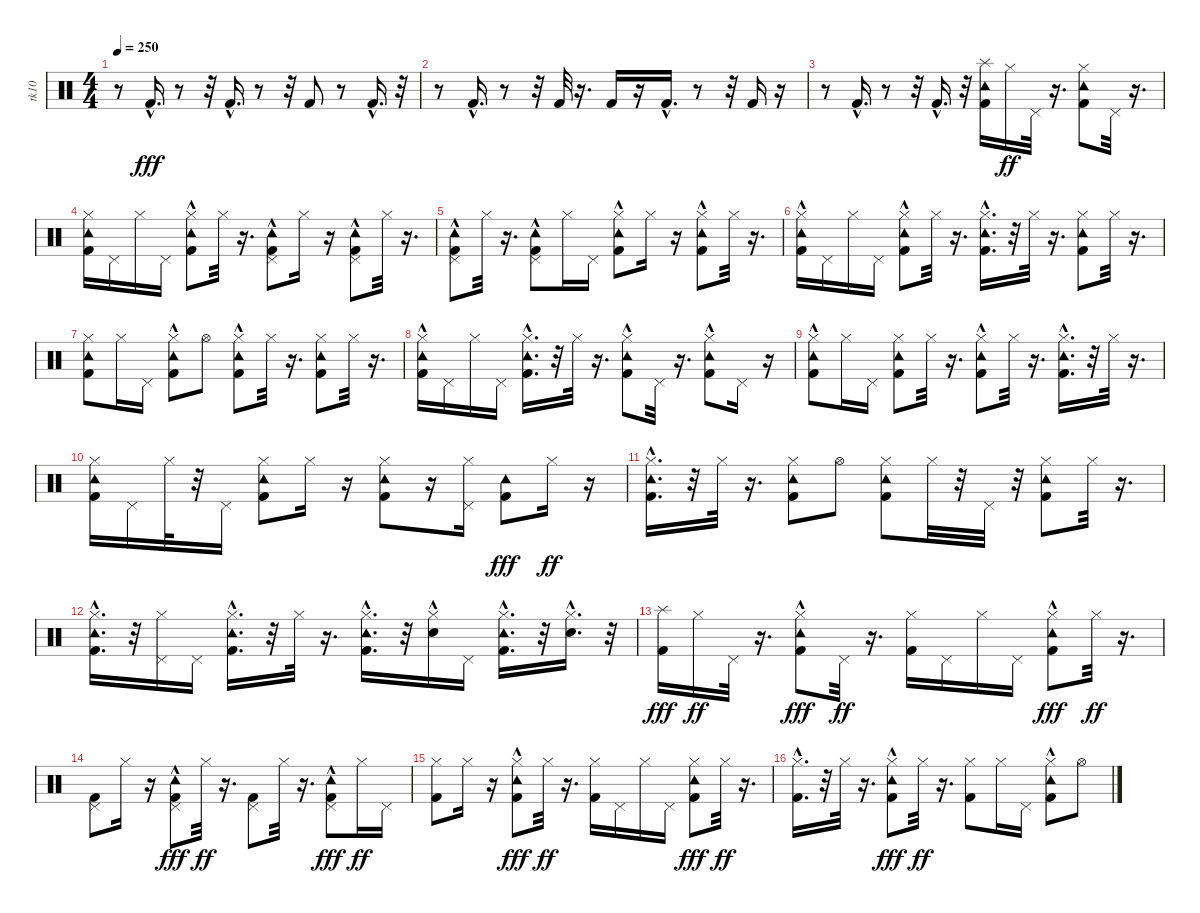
\track ("tk10" "tk10") {instrument percussion}
\staff {score}
\articulation defaults
\ts (4 4)
\tempo 250
\clef neutral
\ks c
r.8{dy fff} "Kick (hit) 2"{hac}.16{d} r.8 r.32 "Kick (hit) 2"{hac}.16{d} r.8 r.32 "Kick (hit) 2".8 r.8 "Kick (hit) 2"{hac}.16{d} r.32 |
r.8 "Kick (hit) 2"{hac}.16{d} r.8 r.32 "Kick (hit) 2".32 r.16{d} "Kick (hit) 2".16 r.16 "Kick (hit) 2"{hac}.16{d} r.8 r.32 "Kick (hit) 2".16 r.16 |
r.8 "Kick (hit) 2"{hac}.16{d} r.8 r.32 "Kick (hit) 2"{hac}.16{d} r.32 ("Kick (hit) 2" "Tambourine (hit)" "Splash (hit)").16 "Hi-Hat (closed)".16{dy ff} "Pedal Hi-Hat (hit)".32 r.16{d} ("Kick (hit) 2" "Tambourine (hit)" "Hi-Hat (closed)").8 "Pedal Hi-Hat (hit)".32 r.16{d} |
("Kick (hit) 2" "Tambourine (hit)" "Hi-Hat (closed)").16 "Pedal Hi-Hat (hit)".16 "Hi-Hat (closed)".16 "Pedal Hi-Hat (hit)".16 ("Kick (hit) 2" "Tambourine (hit)"{hac} "Hi-Hat (closed)").8 "Hi-Hat (closed)".32 r.16{d} ("Kick (hit) 2" "Tambourine (hit)"{hac} "Pedal Hi-Hat (hit)").8 "Hi-Hat (closed)".16 r.16 ("Kick (hit) 2" "Tambourine (hit)"{hac} "Pedal Hi-Hat (hit)").8 "Hi-Hat (closed)".32 r.16{d} |
("Kick (hit) 2" "Tambourine (hit)"{hac} "Pedal Hi-Hat (hit)").8 "Hi-Hat (closed)".32 r.16{d} ("Kick (hit) 2" "Tambourine (hit)"{hac} "Pedal Hi-Hat (hit)").8 "Hi-Hat (closed)".16 "Pedal Hi-Hat (hit)".16 ("Kick (hit) 2" "Tambourine (hit)"{hac} "Hi-Hat (closed)").8 "Hi-Hat (closed)".16 r.16 ("Kick (hit) 2" "Tambourine (hit)"{hac} "Hi-Hat (closed)").8 "Hi-Hat (closed)".32 r.16{d} |
("Kick (hit) 2" "Tambourine (hit)"{hac} "Hi-Hat (closed)").16 "Pedal Hi-Hat (hit)".16 "Hi-Hat (closed)".16 "Pedal Hi-Hat (hit)".16 ("Kick (hit) 2" "Tambourine (hit)"{hac} "Hi-Hat (closed)").8 "Hi-Hat (closed)".32 r.16{d} ("Kick (hit) 2"{hac} "Tambourine (hit)"{hac} "Hi-Hat (closed)").16{d} r.32 "Hi-Hat (closed)".32 r.16{d} ("Kick (hit) 2" "Tambourine (hit)" "Hi-Hat (closed)").8 "Hi-Hat (closed)".32 r.16{d} |
("Kick (hit) 2" "Tambourine (hit)" "Hi-Hat (closed)").8 "Hi-Hat (closed)".16 "Pedal Hi-Hat (hit)".16 ("Kick (hit) 2" "Tambourine (hit)"{hac} "Hi-Hat (closed)").8 "Hi-Hat (open)".8 ("Kick (hit) 2" "Tambourine (hit)"{hac} "Hi-Hat (closed)").8 "Hi-Hat (closed)".32 r.16{d} ("Kick (hit) 2" "Tambourine (hit)" "Hi-Hat (closed)").8 "Hi-Hat (closed)".32 r.16{d} |
("Kick (hit) 2" "Tambourine (hit)"{hac} "Hi-Hat (closed)").16 "Pedal Hi-Hat (hit)".16 "Hi-Hat (closed)".16 "Pedal Hi-Hat (hit)".16 ("Kick (hit) 2"{hac} "Tambourine (hit)"{hac} "Hi-Hat (closed)").16{d} r.32 "Hi-Hat (closed)".32 r.16{d} ("Kick (hit) 2" "Tambourine (hit)"{hac} "Hi-Hat (closed)").8 "Pedal Hi-Hat (hit)".32 r.16{d} ("Kick (hit) 2" "Tambourine (hit)"{hac} "Hi-Hat (closed)").8 "Pedal Hi-Hat (hit)".16 r.16 |
("Kick (hit) 2" "Tambourine (hit)"{hac} "Hi-Hat (closed)").8 "Hi-Hat (closed)".16 "Pedal Hi-Hat (hit)".16 ("Kick (hit) 2" "Tambourine (hit)" "Hi-Hat (closed)").8 "Hi-Hat (closed)".32 r.16{d} ("Kick (hit) 2" "Tambourine (hit)"{hac} "Hi-Hat (closed)").8 "Hi-Hat (closed)".32 r.16{d} ("Kick (hit) 2"{hac} "Tambourine (hit)" "Hi-Hat (closed)").16{d} r.32 "Hi-Hat (closed)".32 r.16{d} |
("Kick (hit) 2" "Tambourine (hit)" "Hi-Hat (closed)").16 "Pedal Hi-Hat (hit)".16 "Hi-Hat (closed)".32 r.32 "Pedal Hi-Hat (hit)".16 ("Kick (hit) 2" "Tambourine (hit)" "Hi-Hat (closed)").8 "Hi-Hat (closed)".16 r.16 ("Kick (hit) 2" "Tambourine (hit)" "Hi-Hat (closed)").8 r.16 ("Hi-Hat (closed)" "Pedal Hi-Hat (hit)").16 ("Kick (hit) 2" "Tambourine (hit)").8{dy fff} "Hi-Hat (closed)".16{dy ff} r.16 |
("Kick (hit) 2"{hac} "Tambourine (hit)" "Hi-Hat (closed)").16{d} r.32 "Hi-Hat (closed)".32 r.16{d} ("Kick (hit) 2" "Tambourine (hit)" "Hi-Hat (closed)").8 "Hi-Hat (open)".8 ("Kick (hit) 2" "Tambourine (hit)" "Hi-Hat (closed)").8 "Hi-Hat (closed)".32 r.32 "Pedal Hi-Hat (hit)".32 r.32 ("Kick (hit) 2" "Tambourine (hit)" "Hi-Hat (closed)").8 "Hi-Hat (closed)".32 r.16{d} |
("Kick (hit) 2"{hac} "Tambourine (hit)" "Hi-Hat (closed)").16{d} r.32 ("Hi-Hat (closed)" "Pedal Hi-Hat (hit)").16 "Pedal Hi-Hat (hit)".16 ("Kick (hit) 2"{hac} "Tambourine (hit)" "Hi-Hat (closed)").16{d} r.32 "Hi-Hat (closed)".32 r.16{d} ("Kick (hit) 2"{hac} "Tambourine (hit)" "Hi-Hat (closed)").16{d} r.32 ("Electric Snare (hit)"{hac} "Hi-Hat (closed)").16 "Pedal Hi-Hat (hit)".16 ("Kick (hit) 2"{hac} "Tambourine (hit)" "Hi-Hat (closed)").16{d} r.32 ("Electric Snare (hit)"{hac} "Hi-Hat (closed)").16{d} r.32 |
("Kick (hit) 2" "Splash (hit)").16{dy fff} "Hi-Hat (closed)".16{dy ff} "Pedal Hi-Hat (hit)".32 r.16{d} ("Kick (hit) 2" "Hi-Hat (closed)" "Tambourine (hit)"{hac}).8{dy fff} "Pedal Hi-Hat (hit)".32{dy ff} r.16{d} ("Kick (hit) 2" "Hi-Hat (closed)").16 "Pedal Hi-Hat (hit)".16 "Hi-Hat (closed)".16 "Pedal Hi-Hat (hit)".16 ("Kick (hit) 2" "Hi-Hat (closed)" "Tambourine (hit)"{hac}).8{dy fff} "Hi-Hat (closed)".32{dy ff} r.16{d} |
("Kick (hit) 2" "Pedal Hi-Hat (hit)").8 "Hi-Hat (closed)".16 r.16 ("Kick (hit) 2" "Pedal Hi-Hat (hit)" "Tambourine (hit)"{hac}).8{dy fff} "Hi-Hat (closed)".32{dy ff} r.16{d} ("Kick (hit) 2" "Pedal Hi-Hat (hit)").8 "Hi-Hat (closed)".32 r.16{d} ("Kick (hit) 2" "Pedal Hi-Hat (hit)" "Tambourine (hit)"{hac}).8{dy fff} "Hi-Hat (closed)".16{dy ff} "Pedal Hi-Hat (hit)".16 |
("Kick (hit) 2" "Hi-Hat (closed)").8 "Hi-Hat (closed)".16 r.16 ("Kick (hit) 2" "Hi-Hat (closed)" "Tambourine (hit)"{hac}).8{dy fff} "Hi-Hat (closed)".32{dy ff} r.16{d} ("Kick (hit) 2" "Hi-Hat (closed)").16 "Pedal Hi-Hat (hit)".16 "Hi-Hat (closed)".16 "Pedal Hi-Hat (hit)".16 ("Kick (hit) 2" "Hi-Hat (closed)" "Tambourine (hit)").8{dy fff} "Hi-Hat (closed)".32{dy ff} r.16{d} |
("Kick (hit) 2"{hac} "Hi-Hat (closed)").16{d} r.32 "Hi-Hat (closed)".32 r.16{d} ("Kick (hit) 2" "Hi-Hat (closed)" "Tambourine (hit)"{hac}).8{dy fff} "Hi-Hat (closed)".32{dy ff} r.16{d} ("Kick (hit) 2" "Hi-Hat (closed)").8 "Hi-Hat (closed)".16 "Pedal Hi-Hat (hit)".16 ("Tambourine (hit)"{hac} "Kick (hit) 2" "Hi-Hat (closed)").8 "Hi-Hat (open)".8
